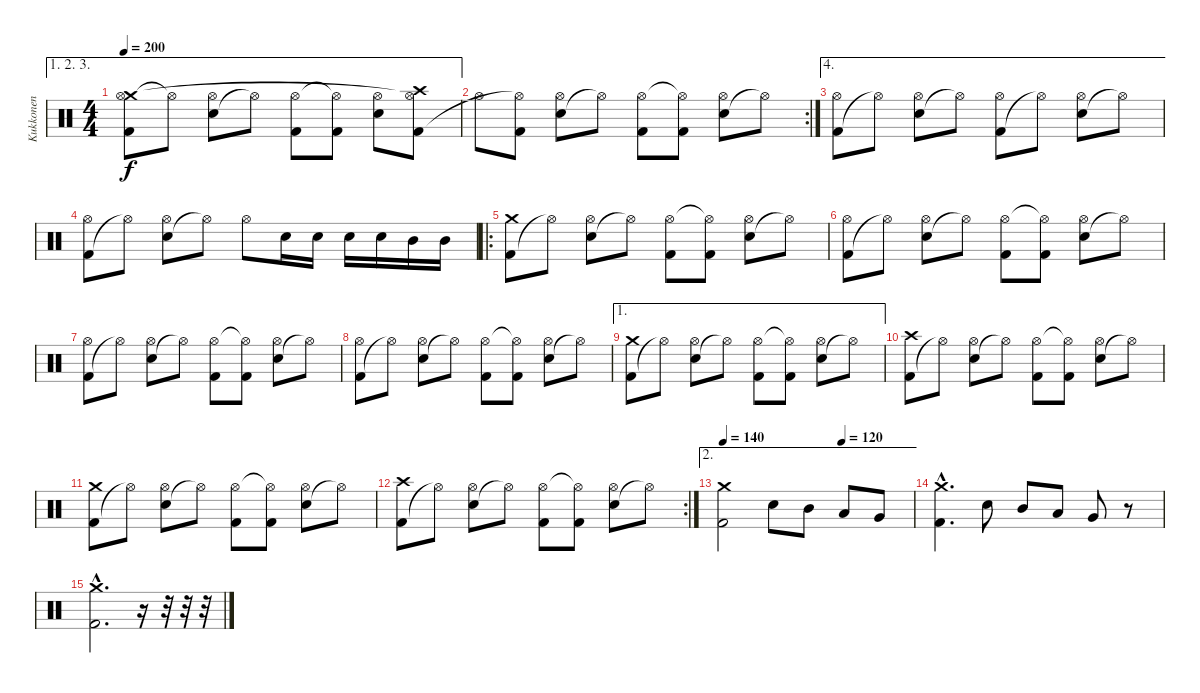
\track ("Kukkonen" "Kukkonen") {instrument percussion}
\staff {score}
\articulation defaults
\ae (1 2 3)
\ts (4 4)
\tempo 200
\clef neutral
\ks c
("Crash medium (hit)" "Kick (hit) 2" "Hi-Hat (open)").8{dy f} "Hi-Hat (open)"{t}.8 ("Electric Snare (hit)" "Hi-Hat (open)").8 "Hi-Hat (open)"{t}.8 ("Kick (hit) 2" "Hi-Hat (open)").8 ("Kick (hit) 2" "Hi-Hat (open)"{t}).8 ("Electric Snare (hit)" "Hi-Hat (open)").8 ("Crash high (hit)" "Kick (hit) 2" "Hi-Hat (open)"{t}).8 |
\rc 2 "Hi-Hat (open)".8
("Kick (hit) 2" "Hi-Hat (open)"{t}).8 ("Electric Snare (hit)" "Hi-Hat (open)").8 "Hi-Hat (open)"{t}.8 ("Kick (hit) 2" "Hi-Hat (open)").8 ("Kick (hit) 2" "Hi-Hat (open)"{t}).8 ("Electric Snare (hit)" "Hi-Hat (open)").8 "Hi-Hat (open)"{t}.8 |
\ae 4
("Kick (hit) 2" "Hi-Hat (open)").8 "Hi-Hat (open)"{t}.8 ("Electric Snare (hit)" "Hi-Hat (open)").8 "Hi-Hat (open)"{t}.8 ("Kick (hit) 2" "Hi-Hat (open)").8 "Hi-Hat (open)"{t}.8 ("Electric Snare (hit)" "Hi-Hat (open)").8 "Hi-Hat (open)"{t}.8 |
("Kick (hit) 2" "Hi-Hat (open)").8 "Hi-Hat (open)"{t}.8 ("Electric Snare (hit)" "Hi-Hat (open)").8 "Hi-Hat (open)"{t}.8 "Hi-Hat (open)".8 "Electric Snare (hit)".16 "Electric Snare (hit)".16 "Electric Snare (hit)".16 "Electric Snare (hit)".16 "Mid Tom (hit)".16 "Mid Tom (hit)".16 |
\ro
("Kick (hit) 2" "Crash medium (hit)").8 "Hi-Hat (open)"{t}.8 ("Electric Snare (hit)" "Hi-Hat (open)").8 "Hi-Hat (open)"{t}.8 ("Kick (hit) 2" "Hi-Hat (open)").8 ("Kick (hit) 2" "Hi-Hat (open)"{t}).8 ("Electric Snare (hit)" "Hi-Hat (open)").8 "Hi-Hat (open)"{t}.8 |
("Kick (hit) 2" "Hi-Hat (open)").8 "Hi-Hat (open)"{t}.8 ("Electric Snare (hit)" "Hi-Hat (open)").8 "Hi-Hat (open)"{t}.8 ("Kick (hit) 2" "Hi-Hat (open)").8 ("Kick (hit) 2" "Hi-Hat (open)"{t}).8 ("Electric Snare (hit)" "Hi-Hat (open)").8 "Hi-Hat (open)"{t}.8 |
("Kick (hit) 2" "Hi-Hat (open)").8 "Hi-Hat (open)"{t}.8 ("Electric Snare (hit)" "Hi-Hat (open)").8 "Hi-Hat (open)"{t}.8 ("Kick (hit) 2" "Hi-Hat (open)").8 ("Kick (hit) 2" "Hi-Hat (open)"{t}).8 ("Electric Snare (hit)" "Hi-Hat (open)").8 "Hi-Hat (open)"{t}.8 |
("Kick (hit) 2" "Hi-Hat (open)").8 "Hi-Hat (open)"{t}.8 ("Electric Snare (hit)" "Hi-Hat (open)").8 "Hi-Hat (open)"{t}.8 ("Kick (hit) 2" "Hi-Hat (open)").8 ("Kick (hit) 2" "Hi-Hat (open)"{t}).8 ("Electric Snare (hit)" "Hi-Hat (open)").8 "Hi-Hat (open)"{t}.8 |
\ae 1
("Kick (hit) 2" "Crash medium (hit)").8 "Hi-Hat (open)"{t}.8 ("Electric Snare (hit)" "Hi-Hat (open)").8 "Hi-Hat (open)"{t}.8 ("Kick (hit) 2" "Hi-Hat (open)").8 ("Kick (hit) 2" "Hi-Hat (open)"{t}).8 ("Electric Snare (hit)" "Hi-Hat (open)").8 "Hi-Hat (open)"{t}.8 |
("Kick (hit) 2" "Crash high (hit)").8 "Hi-Hat (open)"{t}.8 ("Electric Snare (hit)" "Hi-Hat (open)").8 "Hi-Hat (open)"{t}.8 ("Kick (hit) 2" "Hi-Hat (open)").8 ("Kick (hit) 2" "Hi-Hat (open)"{t}).8 ("Electric Snare (hit)" "Hi-Hat (open)").8 "Hi-Hat (open)"{t}.8 |
("Kick (hit) 2" "Crash medium (hit)").8 "Hi-Hat (open)"{t}.8 ("Electric Snare (hit)" "Hi-Hat (open)").8 "Hi-Hat (open)"{t}.8 ("Kick (hit) 2" "Hi-Hat (open)").8 ("Kick (hit) 2" "Hi-Hat (open)"{t}).8 ("Electric Snare (hit)" "Hi-Hat (open)").8 "Hi-Hat (open)"{t}.8 |
\rc 2
("Kick (hit) 2" "Crash high (hit)").8 "Hi-Hat (open)"{t}.8 ("Electric Snare (hit)" "Hi-Hat (open)").8 "Hi-Hat (open)"{t}.8 ("Kick (hit) 2" "Hi-Hat (open)").8 ("Kick (hit) 2" "Hi-Hat (open)"{t}).8 ("Electric Snare (hit)" "Hi-Hat (open)").8 "Hi-Hat (open)"{t}.8 |
\ae 2
\tempo 140
\tempo (120 0.625)
("Kick (hit) 2" "Crash medium (hit)").2 "Electric Snare (hit)".8 "Mid Tom (hit)".8 "Low Tom (hit)".8 "Very Low Tom (hit)".8 |
("Kick (hit) 2"{hac} "Crash medium (hit)"{hac}).4{d} "Electric Snare (hit)".8 "Mid Tom (hit)".8 "Low Tom (hit)".8 "Very Low Tom (hit)".8 r.8 |
("Kick (hit) 2"{hac} "Crash medium (hit)"{hac}).2{d} r.16 r.32 r.32 r.32
